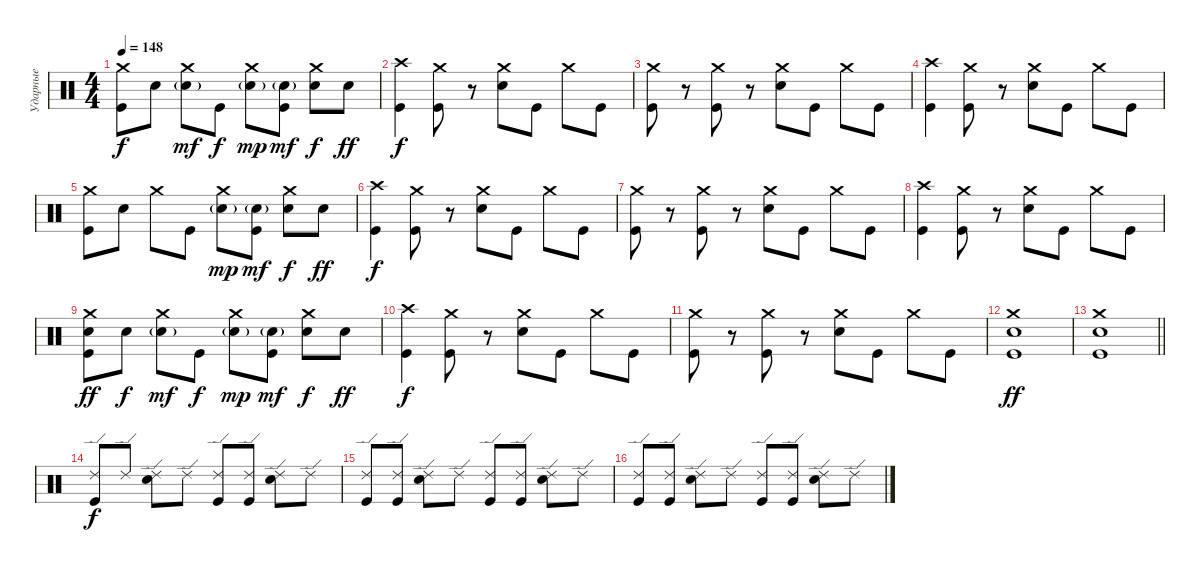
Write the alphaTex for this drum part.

\track ("Ударные" "Ударные") {instrument percussion}
\staff {score}
\articulation defaults
\ts (4 4)
\tempo 148
\clef neutral
\ks c
("Crash medium (hit)" "Kick (hit)").8{dy f} "Electric Snare (hit)".8 ("Crash medium (hit)" "Electric Snare (hit)"{g}).8{dy mf} "Kick (hit)".8{dy f} ("Crash medium (hit)" "Electric Snare (hit)"{g}).8{dy mp} ("Electric Snare (hit)"{g} "Kick (hit)").8{dy mf} ("Crash medium (hit)" "Electric Snare (hit)").8{dy f} "Electric Snare (hit)".8{dy ff} |
("Crash high (hit)" "Kick (hit)").4{dy f} ("Crash medium (hit)" "Kick (hit)").8 r.8 ("Crash medium (hit)" "Electric Snare (hit)").8 "Kick (hit)".8 "Crash medium (hit)".8 "Kick (hit)".8 |
("Crash medium (hit)" "Kick (hit)").8 r.8 ("Crash medium (hit)" "Kick (hit)").8 r.8 ("Crash medium (hit)" "Electric Snare (hit)").8 "Kick (hit)".8 "Crash medium (hit)".8 "Kick (hit)".8 |
("Crash high (hit)" "Kick (hit)").4 ("Crash medium (hit)" "Kick (hit)").8 r.8 ("Crash medium (hit)" "Electric Snare (hit)").8 "Kick (hit)".8 "Crash medium (hit)".8 "Kick (hit)".8 |
("Crash medium (hit)" "Kick (hit)").8 "Electric Snare (hit)".8 "Crash medium (hit)".8 "Kick (hit)".8 ("Crash medium (hit)" "Electric Snare (hit)"{g}).8{dy mp} ("Electric Snare (hit)"{g} "Kick (hit)").8{dy mf} ("Crash medium (hit)" "Electric Snare (hit)").8{dy f} "Electric Snare (hit)".8{dy ff} |
("Crash high (hit)" "Kick (hit)").4{dy f} ("Crash medium (hit)" "Kick (hit)").8 r.8 ("Crash medium (hit)" "Electric Snare (hit)").8 "Kick (hit)".8 "Crash medium (hit)".8 "Kick (hit)".8 |
("Crash medium (hit)" "Kick (hit)").8 r.8 ("Crash medium (hit)" "Kick (hit)").8 r.8 ("Crash medium (hit)" "Electric Snare (hit)").8 "Kick (hit)".8 "Crash medium (hit)".8 "Kick (hit)".8 |
("Crash high (hit)" "Kick (hit)").4 ("Crash medium (hit)" "Kick (hit)").8 r.8 ("Crash medium (hit)" "Electric Snare (hit)").8 "Kick (hit)".8 "Crash medium (hit)".8 "Kick (hit)".8 |
("Crash medium (hit)" "Electric Snare (hit)" "Kick (hit)").8{dy ff} "Electric Snare (hit)".8{dy f} ("Crash medium (hit)" "Electric Snare (hit)"{g}).8{dy mf} "Kick (hit)".8{dy f} ("Crash medium (hit)" "Electric Snare (hit)"{g}).8{dy mp} ("Electric Snare (hit)"{g} "Kick (hit)").8{dy mf} ("Crash medium (hit)" "Electric Snare (hit)").8{dy f} "Electric Snare (hit)".8{dy ff} |
("Crash high (hit)" "Kick (hit)").4{dy f} ("Crash medium (hit)" "Kick (hit)").8 r.8 ("Crash medium (hit)" "Electric Snare (hit)").8 "Kick (hit)".8 "Crash medium (hit)".8 "Kick (hit)".8 |
("Crash medium (hit)" "Kick (hit)").8 r.8 ("Crash medium (hit)" "Kick (hit)").8 r.8 ("Crash medium (hit)" "Electric Snare (hit)").8 "Kick (hit)".8 "Crash medium (hit)".8 "Kick (hit)".8 |
("Crash medium (hit)" "Kick (hit)" "Electric Snare (hit)").1{dy ff} |
\barLineRight lightlight
("Crash medium (hit)" "Kick (hit)" "Electric Snare (hit)").1 |
\section ("" "")
("Ride (edge) 2" "Kick (hit)").8{dy f} "Ride (edge) 2".8 ("Ride (edge) 2" "Electric Snare (hit)").8 "Ride (edge) 2".8 ("Ride (edge) 2" "Kick (hit)").8 ("Ride (edge) 2" "Kick (hit)").8 ("Ride (edge) 2" "Electric Snare (hit)").8 "Ride (edge) 2".8 |
("Ride (edge) 2" "Kick (hit)").8 ("Ride (edge) 2" "Kick (hit)").8 ("Ride (edge) 2" "Electric Snare (hit)").8 "Ride (edge) 2".8 ("Ride (edge) 2" "Kick (hit)").8 ("Ride (edge) 2" "Kick (hit)").8 ("Ride (edge) 2" "Electric Snare (hit)").8 "Ride (edge) 2".8 |
("Ride (edge) 2" "Kick (hit)").8 ("Ride (edge) 2" "Kick (hit)").8 ("Ride (edge) 2" "Electric Snare (hit)").8 "Ride (edge) 2".8 ("Ride (edge) 2" "Kick (hit)").8 ("Ride (edge) 2" "Kick (hit)").8 ("Ride (edge) 2" "Electric Snare (hit)").8 "Ride (edge) 2".8
